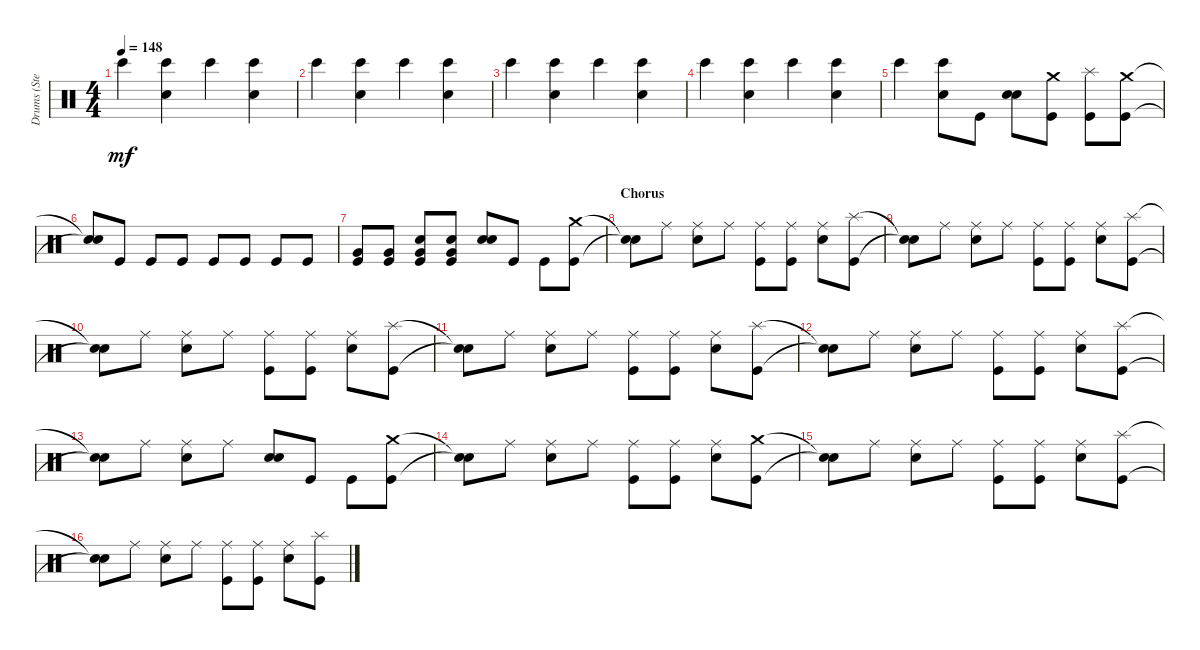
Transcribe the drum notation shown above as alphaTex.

\track ("Drums (Steven)" "Drums (Ste") {instrument percussion}
\staff {score}
\articulation defaults
\ts (4 4)
\tempo 148
\clef neutral
\ks c "Bongo High (hit)".4{dy mf}
("Snare (hit) 2" "Bongo High (hit)").4 "Bongo High (hit)".4 ("Snare (hit) 2" "Bongo High (hit)").4 |
"Bongo High (hit)".4 ("Snare (hit) 2" "Bongo High (hit)").4 "Bongo High (hit)".4 ("Snare (hit) 2" "Bongo High (hit)").4 |
"Bongo High (hit)".4 ("Snare (hit) 2" "Bongo High (hit)").4 "Bongo High (hit)".4 ("Snare (hit) 2" "Bongo High (hit)").4 |
"Bongo High (hit)".4 ("Snare (hit) 2" "Bongo High (hit)").4 "Bongo High (hit)".4 ("Snare (hit) 2" "Bongo High (hit)").4 |
"Bongo High (hit)".4 ("Snare (hit) 2" "Bongo High (hit)").8 "Kick (hit)".8 ("Snare (hit) 2" "Snare (hit) 2").8 ("Kick (hit)" "Crash medium (hit)").8 ("Kick (hit)" "Splash (hit)").8 ("Kick (hit)" "Crash medium (hit)").8 |
("Snare (hit)"{t} "Snare (hit)"{t}).8 "Kick (hit)".8 "Kick (hit)".8 "Kick (hit)".8 "Kick (hit)".8 "Kick (hit)".8 "Kick (hit)".8 "Kick (hit)".8 |
("Kick (hit)" "Very Low Tom (hit)").8 ("Kick (hit)" "Very Low Tom (hit)").8 ("Kick (hit)" "Snare (hit) 2" "Very Low Tom (hit)").8 ("Kick (hit)" "Snare (hit) 2" "Very Low Tom (hit)").8 ("Snare (hit) 2" "Snare (hit) 2").8 "Kick (hit)".8 "Kick (hit)".8 ("Kick (hit)" "Crash medium (hit)").8 |
\section ("" "Chorus")
("Snare (hit)"{t} "Snare (hit)"{t}).8 "Ride (middle)".8 ("Snare (hit) 2" "Ride (middle)").8 "Ride (middle)".8 ("Kick (hit)" "Ride (middle)").8 ("Kick (hit)" "Ride (middle)").8 ("Snare (hit) 2" "Ride (middle)").8 ("Kick (hit)" "Splash (hit)").8 |
("Snare (hit)"{t} "Snare (hit)"{t}).8 "Ride (middle)".8 ("Snare (hit) 2" "Ride (middle)").8 "Ride (middle)".8 ("Kick (hit)" "Ride (middle)").8 ("Kick (hit)" "Ride (middle)").8 ("Snare (hit) 2" "Ride (middle)").8 ("Kick (hit)" "Splash (hit)").8 |
("Snare (hit)"{t} "Snare (hit)"{t}).8 "Ride (middle)".8 ("Snare (hit) 2" "Ride (middle)").8 "Ride (middle)".8 ("Kick (hit)" "Ride (middle)").8 ("Kick (hit)" "Ride (middle)").8 ("Snare (hit) 2" "Ride (middle)").8 ("Kick (hit)" "Splash (hit)").8 |
("Snare (hit)"{t} "Snare (hit)"{t}).8 "Ride (middle)".8 ("Snare (hit) 2" "Ride (middle)").8 "Ride (middle)".8 ("Kick (hit)" "Ride (middle)").8 ("Kick (hit)" "Ride (middle)").8 ("Snare (hit) 2" "Ride (middle)").8 ("Kick (hit)" "Splash (hit)").8 |
("Snare (hit)"{t} "Snare (hit)"{t}).8 "Ride (middle)".8 ("Snare (hit) 2" "Ride (middle)").8 "Ride (middle)".8 ("Kick (hit)" "Ride (middle)").8 ("Kick (hit)" "Ride (middle)").8 ("Snare (hit) 2" "Ride (middle)").8 ("Kick (hit)" "Splash (hit)").8 |
("Snare (hit)"{t} "Snare (hit)"{t}).8 "Ride (middle)".8 ("Snare (hit) 2" "Ride (middle)").8 "Ride (middle)".8 ("Snare (hit) 2" "Snare (hit) 2").8 "Kick (hit)".8 "Kick (hit)".8 ("Kick (hit)" "Crash medium (hit)").8 |
("Snare (hit)"{t} "Snare (hit)"{t}).8 "Ride (middle)".8 ("Snare (hit) 2" "Ride (middle)").8 "Ride (middle)".8 ("Kick (hit)" "Ride (middle)").8 ("Kick (hit)" "Ride (middle)").8 ("Snare (hit) 2" "Ride (middle)").8 ("Kick (hit)" "Crash medium (hit)").8 |
("Snare (hit)"{t} "Snare (hit)"{t}).8 "Ride (middle)".8 ("Snare (hit) 2" "Ride (middle)").8 "Ride (middle)".8 ("Kick (hit)" "Ride (middle)").8 ("Kick (hit)" "Ride (middle)").8 ("Snare (hit) 2" "Ride (middle)").8 ("Kick (hit)" "Splash (hit)").8 |
("Snare (hit)"{t} "Snare (hit)"{t}).8 "Ride (middle)".8 ("Snare (hit) 2" "Ride (middle)").8 "Ride (middle)".8 ("Kick (hit)" "Ride (middle)").8 ("Kick (hit)" "Ride (middle)").8 ("Snare (hit) 2" "Ride (middle)").8 ("Kick (hit)" "Splash (hit)").8
